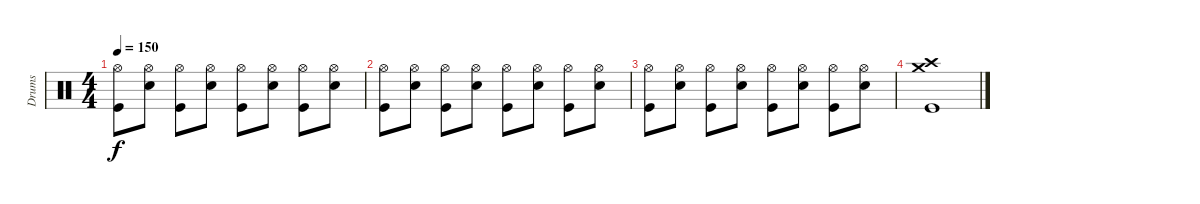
\track ("Drums" "Drums") {instrument percussion}
\staff {score}
\articulation defaults
\ts (4 4)
\tempo 150
\clef neutral
\ks c
("Hi-Hat (open)" "Kick (hit)").8{dy f} ("Hi-Hat (open)" "Snare (hit) 2").8 ("Hi-Hat (open)" "Kick (hit)").8 ("Hi-Hat (open)" "Snare (hit) 2").8 ("Hi-Hat (open)" "Kick (hit)").8 ("Hi-Hat (open)" "Snare (hit) 2").8 ("Hi-Hat (open)" "Kick (hit)").8 ("Hi-Hat (open)" "Snare (hit) 2").8 |
("Hi-Hat (open)" "Kick (hit)").8 ("Hi-Hat (open)" "Snare (hit) 2").8 ("Hi-Hat (open)" "Kick (hit)").8 ("Hi-Hat (open)" "Snare (hit) 2").8 ("Hi-Hat (open)" "Kick (hit)").8 ("Hi-Hat (open)" "Snare (hit) 2").8 ("Hi-Hat (open)" "Kick (hit)").8 ("Hi-Hat (open)" "Snare (hit) 2").8 |
("Hi-Hat (open)" "Kick (hit)").8 ("Hi-Hat (open)" "Snare (hit) 2").8 ("Hi-Hat (open)" "Kick (hit)").8 ("Hi-Hat (open)" "Snare (hit) 2").8 ("Hi-Hat (open)" "Kick (hit)").8 ("Hi-Hat (open)" "Snare (hit) 2").8 ("Hi-Hat (open)" "Kick (hit)").8 ("Hi-Hat (open)" "Snare (hit) 2").8 |
("Crash high (hit)" "Crash medium (hit)" "Kick (hit)").1
